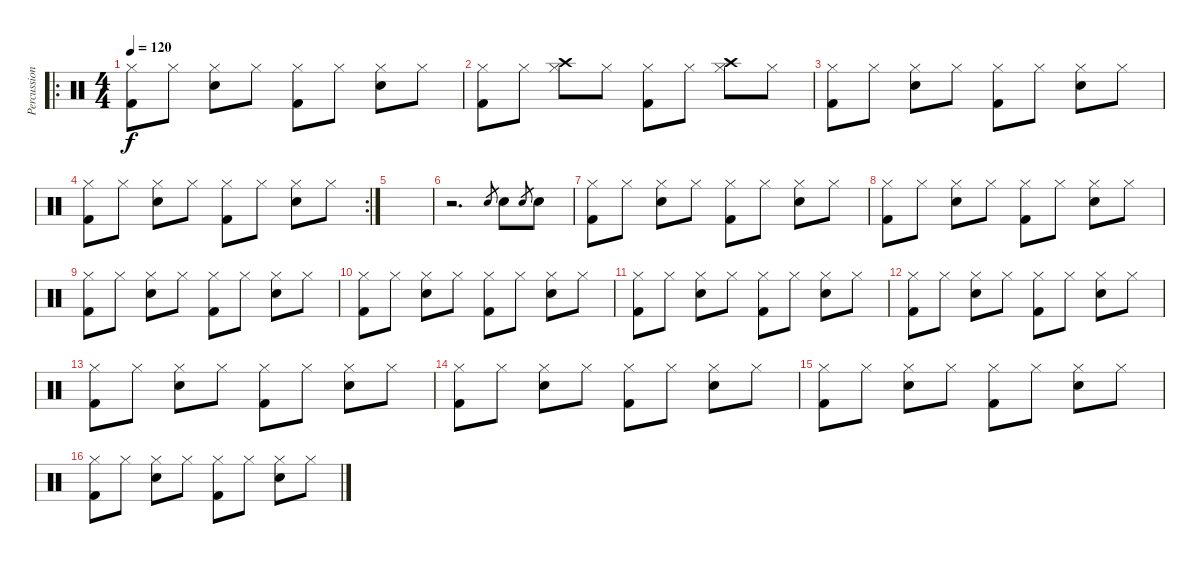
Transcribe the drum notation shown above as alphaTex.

\track ("Percussion" "Percussion") {instrument percussion}
\staff {score}
\articulation defaults
\ro
\ts (4 4)
\tempo 120
\clef neutral
\ks c
("Hi-Hat (closed)" "Kick (hit) 2").8{dy f} "Hi-Hat (closed)".8 ("Hi-Hat (closed)" "Electric Snare (hit)").8 "Hi-Hat (closed)".8 ("Hi-Hat (closed)" "Kick (hit) 2").8 "Hi-Hat (closed)".8 ("Hi-Hat (closed)" "Electric Snare (hit)").8 "Hi-Hat (closed)".8 |
("Hi-Hat (closed)" "Kick (hit) 2").8 "Hi-Hat (closed)".8 ("Hi-Hat (closed)" "Crash high (hit)").8 "Hi-Hat (closed)".8 ("Hi-Hat (closed)" "Kick (hit) 2").8 "Hi-Hat (closed)".8 ("Hi-Hat (closed)" "Crash high (hit)").8 "Hi-Hat (closed)".8 |
("Hi-Hat (closed)" "Kick (hit) 2").8 "Hi-Hat (closed)".8 ("Hi-Hat (closed)" "Electric Snare (hit)").8 "Hi-Hat (closed)".8 ("Hi-Hat (closed)" "Kick (hit) 2").8 "Hi-Hat (closed)".8 ("Hi-Hat (closed)" "Electric Snare (hit)").8 "Hi-Hat (closed)".8 |
\rc 2
("Hi-Hat (closed)" "Kick (hit) 2").8 "Hi-Hat (closed)".8 ("Hi-Hat (closed)" "Electric Snare (hit)").8 "Hi-Hat (closed)".8 ("Hi-Hat (closed)" "Kick (hit) 2").8 "Hi-Hat (closed)".8 ("Hi-Hat (closed)" "Electric Snare (hit)").8 "Hi-Hat (closed)".8 |
|
r.2{d} "Electric Snare (hit)".8{gr} "Electric Snare (hit)".8 "Electric Snare (hit)".8{gr} "Electric Snare (hit)".8 |
("Hi-Hat (closed)" "Kick (hit) 2").8 "Hi-Hat (closed)".8 ("Hi-Hat (closed)" "Electric Snare (hit)").8 "Hi-Hat (closed)".8 ("Hi-Hat (closed)" "Kick (hit) 2").8 "Hi-Hat (closed)".8 ("Hi-Hat (closed)" "Electric Snare (hit)").8 "Hi-Hat (closed)".8 |
("Hi-Hat (closed)" "Kick (hit) 2").8 "Hi-Hat (closed)".8 ("Hi-Hat (closed)" "Electric Snare (hit)").8 "Hi-Hat (closed)".8 ("Hi-Hat (closed)" "Kick (hit) 2").8 "Hi-Hat (closed)".8 ("Hi-Hat (closed)" "Electric Snare (hit)").8 "Hi-Hat (closed)".8 |
("Hi-Hat (closed)" "Kick (hit) 2").8 "Hi-Hat (closed)".8 ("Hi-Hat (closed)" "Electric Snare (hit)").8 "Hi-Hat (closed)".8 ("Hi-Hat (closed)" "Kick (hit) 2").8 "Hi-Hat (closed)".8 ("Hi-Hat (closed)" "Electric Snare (hit)").8 "Hi-Hat (closed)".8 |
("Hi-Hat (closed)" "Kick (hit) 2").8 "Hi-Hat (closed)".8 ("Hi-Hat (closed)" "Electric Snare (hit)").8 "Hi-Hat (closed)".8 ("Hi-Hat (closed)" "Kick (hit) 2").8 "Hi-Hat (closed)".8 ("Hi-Hat (closed)" "Electric Snare (hit)").8 "Hi-Hat (closed)".8 |
("Hi-Hat (closed)" "Kick (hit) 2").8 "Hi-Hat (closed)".8 ("Hi-Hat (closed)" "Electric Snare (hit)").8 "Hi-Hat (closed)".8 ("Hi-Hat (closed)" "Kick (hit) 2").8 "Hi-Hat (closed)".8 ("Hi-Hat (closed)" "Electric Snare (hit)").8 "Hi-Hat (closed)".8 |
("Hi-Hat (closed)" "Kick (hit) 2").8 "Hi-Hat (closed)".8 ("Hi-Hat (closed)" "Electric Snare (hit)").8 "Hi-Hat (closed)".8 ("Hi-Hat (closed)" "Kick (hit) 2").8 "Hi-Hat (closed)".8 ("Hi-Hat (closed)" "Electric Snare (hit)").8 "Hi-Hat (closed)".8 |
("Hi-Hat (closed)" "Kick (hit) 2").8 "Hi-Hat (closed)".8 ("Hi-Hat (closed)" "Electric Snare (hit)").8 "Hi-Hat (closed)".8 ("Hi-Hat (closed)" "Kick (hit) 2").8 "Hi-Hat (closed)".8 ("Hi-Hat (closed)" "Electric Snare (hit)").8 "Hi-Hat (closed)".8 |
("Hi-Hat (closed)" "Kick (hit) 2").8 "Hi-Hat (closed)".8 ("Hi-Hat (closed)" "Electric Snare (hit)").8 "Hi-Hat (closed)".8 ("Hi-Hat (closed)" "Kick (hit) 2").8 "Hi-Hat (closed)".8 ("Hi-Hat (closed)" "Electric Snare (hit)").8 "Hi-Hat (closed)".8 |
("Hi-Hat (closed)" "Kick (hit) 2").8 "Hi-Hat (closed)".8 ("Hi-Hat (closed)" "Electric Snare (hit)").8 "Hi-Hat (closed)".8 ("Hi-Hat (closed)" "Kick (hit) 2").8 "Hi-Hat (closed)".8 ("Hi-Hat (closed)" "Electric Snare (hit)").8 "Hi-Hat (closed)".8 |
("Hi-Hat (closed)" "Kick (hit) 2").8 "Hi-Hat (closed)".8 ("Hi-Hat (closed)" "Electric Snare (hit)").8 "Hi-Hat (closed)".8 ("Hi-Hat (closed)" "Kick (hit) 2").8 "Hi-Hat (closed)".8 ("Hi-Hat (closed)" "Electric Snare (hit)").8 "Hi-Hat (closed)".8
